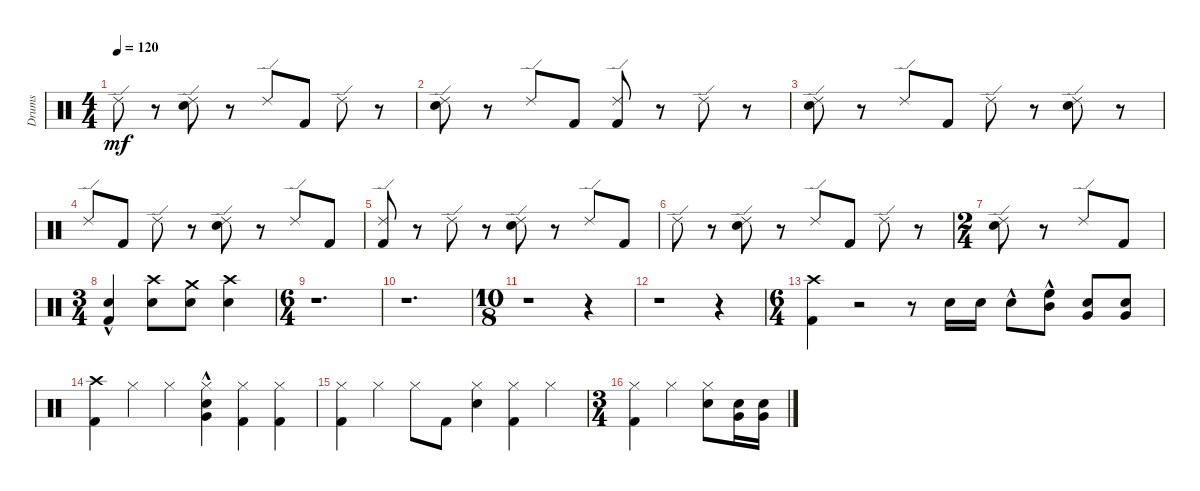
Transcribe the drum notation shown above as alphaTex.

\track ("Drums" "Drums") {instrument percussion}
\staff {score}
\articulation defaults
\ts (4 4)
\tempo 120
\clef neutral
\ks c "Ride (edge) 2".8{dy mf}
r.8 ("Electric Snare (hit)" "Ride (edge) 2").8 r.8 "Ride (edge) 2".8 "Kick (hit) 2".8 "Ride (edge) 2".8 r.8 |
("Electric Snare (hit)" "Ride (edge) 2").8 r.8 "Ride (edge) 2".8 "Kick (hit) 2".8 ("Kick (hit) 2" "Ride (edge) 2").8 r.8 "Ride (edge) 2".8 r.8 |
("Electric Snare (hit)" "Ride (edge) 2").8 r.8 "Ride (edge) 2".8 "Kick (hit) 2".8 "Ride (edge) 2".8 r.8 ("Electric Snare (hit)" "Ride (edge) 2").8 r.8 |
"Ride (edge) 2".8 "Kick (hit) 2".8 "Ride (edge) 2".8 r.8 ("Electric Snare (hit)" "Ride (edge) 2").8 r.8 "Ride (edge) 2".8 "Kick (hit) 2".8 |
("Kick (hit) 2" "Ride (edge) 2").8 r.8 "Ride (edge) 2".8 r.8 ("Electric Snare (hit)" "Ride (edge) 2").8 r.8 "Ride (edge) 2".8 "Kick (hit) 2".8 |
"Ride (edge) 2".8 r.8 ("Electric Snare (hit)" "Ride (edge) 2").8 r.8 "Ride (edge) 2".8 "Kick (hit) 2".8 "Ride (edge) 2".8 r.8 |
\ts (2 4)
("Electric Snare (hit)" "Ride (edge) 2").8 r.8 "Ride (edge) 2".8 "Kick (hit) 2".8 |
\ts (3 4)
("Kick (hit) 2" "Snare (hit) 2"{hac}).4 ("Snare (hit) 2" "Crash high (hit)").8 ("Snare (hit) 2" "Crash medium (hit)").8 ("Snare (hit) 2" "Crash high (hit)").4 |
\ts (6 4)
r.1{d} |
r.1{d} |
\ts (10 8)
r.1 r.4 |
r.1 r.4 |
\ts (6 4)
("Kick (hit) 2" "Crash high (hit)").4 r.2 r.8 "Snare (hit) 2".16 "Snare (hit) 2".16 "Snare (hit) 2"{hac}.8 ("Mid Tom (hit)"{hac} "High Floor Tom (hit)"{hac}).8 ("Snare (hit) 2" "Very Low Tom (hit)").8 ("Snare (hit) 2" "Very Low Tom (hit)").8 |
("Kick (hit) 2" "Crash high (hit)").4 "Hi-Hat (closed)".4 "Hi-Hat (closed)".4 ("Snare (hit) 2"{hac} "Very Low Tom (hit)" "Hi-Hat (closed)"{hac}).4 ("Kick (hit) 2" "Hi-Hat (closed)").4 ("Kick (hit) 2" "Hi-Hat (closed)").4 |
("Kick (hit) 2" "Hi-Hat (closed)").4 "Hi-Hat (closed)".4 "Hi-Hat (closed)".8 "Kick (hit) 2".8 ("Snare (hit) 2" "Hi-Hat (closed)").4 ("Kick (hit) 2" "Hi-Hat (closed)").4 "Hi-Hat (closed)".4 |
\ts (3 4)
("Kick (hit) 2" "Hi-Hat (closed)").4 "Hi-Hat (closed)".4 ("Snare (hit) 2" "Hi-Hat (closed)").8 ("Snare (hit) 2" "Very Low Tom (hit)").16 ("Snare (hit) 2" "Very Low Tom (hit)").16
